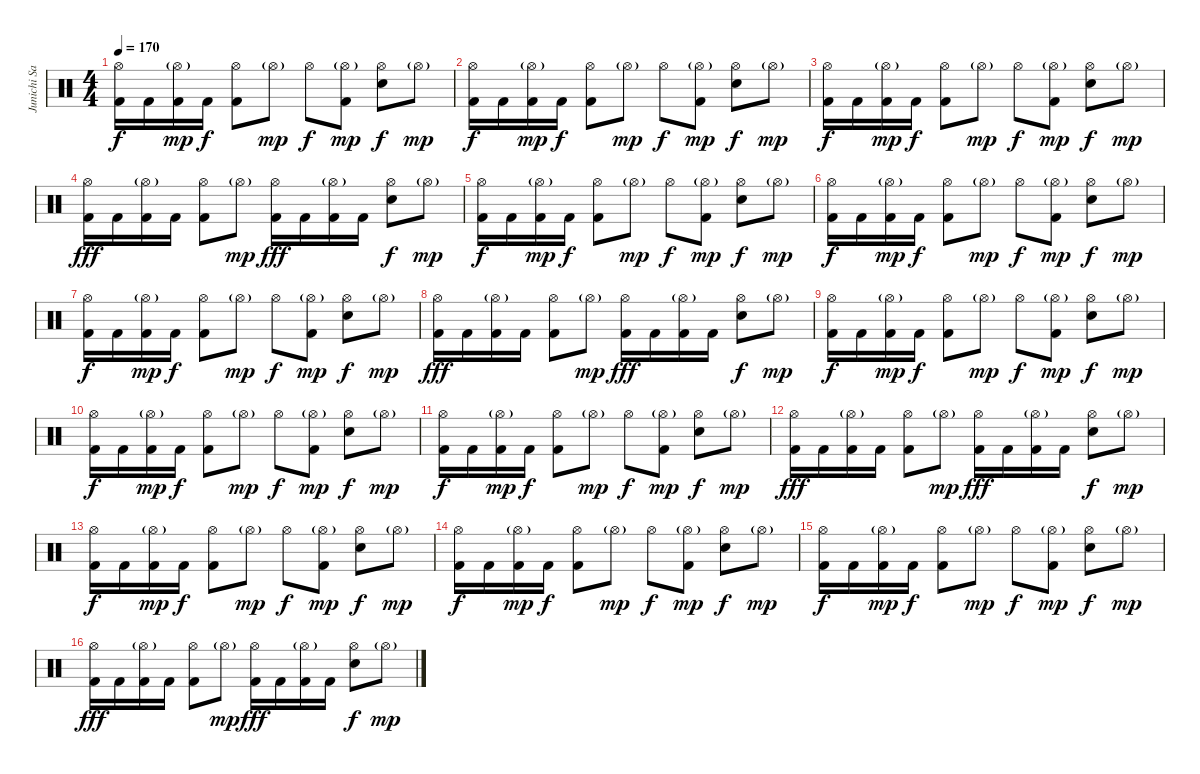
\track ("Junichi Sato" "Junichi Sa") {instrument percussion}
\staff {score}
\articulation defaults
\ts (4 4)
\tempo 170
\clef neutral
\ks c
("Hi-Hat (open)" "Kick (hit) 2").16{dy f} "Kick (hit) 2".16 ("Hi-Hat (open)"{g} "Kick (hit) 2").16{dy mp} "Kick (hit) 2".16{dy f} ("Hi-Hat (open)" "Kick (hit) 2").8 "Hi-Hat (open)"{g}.8{dy mp} "Hi-Hat (open)".8{dy f} ("Hi-Hat (open)"{g} "Kick (hit) 2").8{dy mp} ("Hi-Hat (open)" "Snare (hit) 2").8{dy f} "Hi-Hat (open)"{g}.8{dy mp} |
("Hi-Hat (open)" "Kick (hit) 2").16{dy f} "Kick (hit) 2".16 ("Hi-Hat (open)"{g} "Kick (hit) 2").16{dy mp} "Kick (hit) 2".16{dy f} ("Hi-Hat (open)" "Kick (hit) 2").8 "Hi-Hat (open)"{g}.8{dy mp} "Hi-Hat (open)".8{dy f} ("Hi-Hat (open)"{g} "Kick (hit) 2").8{dy mp} ("Hi-Hat (open)" "Snare (hit) 2").8{dy f} "Hi-Hat (open)"{g}.8{dy mp} |
("Hi-Hat (open)" "Kick (hit) 2").16{dy f} "Kick (hit) 2".16 ("Hi-Hat (open)"{g} "Kick (hit) 2").16{dy mp} "Kick (hit) 2".16{dy f} ("Hi-Hat (open)" "Kick (hit) 2").8 "Hi-Hat (open)"{g}.8{dy mp} "Hi-Hat (open)".8{dy f} ("Hi-Hat (open)"{g} "Kick (hit) 2").8{dy mp} ("Hi-Hat (open)" "Snare (hit) 2").8{dy f} "Hi-Hat (open)"{g}.8{dy mp} |
("Hi-Hat (open)" "Kick (hit) 2").16{dy fff} "Kick (hit) 2".16 ("Hi-Hat (open)"{g} "Kick (hit) 2").16 "Kick (hit) 2".16 ("Hi-Hat (open)" "Kick (hit) 2").8 "Hi-Hat (open)"{g}.8{dy mp} ("Hi-Hat (open)" "Kick (hit) 2").16{dy fff} "Kick (hit) 2".16 ("Hi-Hat (open)"{g} "Kick (hit) 2").16 "Kick (hit) 2".16 ("Hi-Hat (open)" "Snare (hit) 2").8{dy f} "Hi-Hat (open)"{g}.8{dy mp} |
("Hi-Hat (open)" "Kick (hit) 2").16{dy f} "Kick (hit) 2".16 ("Hi-Hat (open)"{g} "Kick (hit) 2").16{dy mp} "Kick (hit) 2".16{dy f} ("Hi-Hat (open)" "Kick (hit) 2").8 "Hi-Hat (open)"{g}.8{dy mp} "Hi-Hat (open)".8{dy f} ("Hi-Hat (open)"{g} "Kick (hit) 2").8{dy mp} ("Hi-Hat (open)" "Snare (hit) 2").8{dy f} "Hi-Hat (open)"{g}.8{dy mp} |
("Hi-Hat (open)" "Kick (hit) 2").16{dy f} "Kick (hit) 2".16 ("Hi-Hat (open)"{g} "Kick (hit) 2").16{dy mp} "Kick (hit) 2".16{dy f} ("Hi-Hat (open)" "Kick (hit) 2").8 "Hi-Hat (open)"{g}.8{dy mp} "Hi-Hat (open)".8{dy f} ("Hi-Hat (open)"{g} "Kick (hit) 2").8{dy mp} ("Hi-Hat (open)" "Snare (hit) 2").8{dy f} "Hi-Hat (open)"{g}.8{dy mp} |
("Hi-Hat (open)" "Kick (hit) 2").16{dy f} "Kick (hit) 2".16 ("Hi-Hat (open)"{g} "Kick (hit) 2").16{dy mp} "Kick (hit) 2".16{dy f} ("Hi-Hat (open)" "Kick (hit) 2").8 "Hi-Hat (open)"{g}.8{dy mp} "Hi-Hat (open)".8{dy f} ("Hi-Hat (open)"{g} "Kick (hit) 2").8{dy mp} ("Hi-Hat (open)" "Snare (hit) 2").8{dy f} "Hi-Hat (open)"{g}.8{dy mp} |
("Hi-Hat (open)" "Kick (hit) 2").16{dy fff} "Kick (hit) 2".16 ("Hi-Hat (open)"{g} "Kick (hit) 2").16 "Kick (hit) 2".16 ("Hi-Hat (open)" "Kick (hit) 2").8 "Hi-Hat (open)"{g}.8{dy mp} ("Hi-Hat (open)" "Kick (hit) 2").16{dy fff} "Kick (hit) 2".16 ("Hi-Hat (open)"{g} "Kick (hit) 2").16 "Kick (hit) 2".16 ("Hi-Hat (open)" "Snare (hit) 2").8{dy f} "Hi-Hat (open)"{g}.8{dy mp} |
("Hi-Hat (open)" "Kick (hit) 2").16{dy f} "Kick (hit) 2".16 ("Hi-Hat (open)"{g} "Kick (hit) 2").16{dy mp} "Kick (hit) 2".16{dy f} ("Hi-Hat (open)" "Kick (hit) 2").8 "Hi-Hat (open)"{g}.8{dy mp} "Hi-Hat (open)".8{dy f} ("Hi-Hat (open)"{g} "Kick (hit) 2").8{dy mp} ("Hi-Hat (open)" "Snare (hit) 2").8{dy f} "Hi-Hat (open)"{g}.8{dy mp} |
("Hi-Hat (open)" "Kick (hit) 2").16{dy f} "Kick (hit) 2".16 ("Hi-Hat (open)"{g} "Kick (hit) 2").16{dy mp} "Kick (hit) 2".16{dy f} ("Hi-Hat (open)" "Kick (hit) 2").8 "Hi-Hat (open)"{g}.8{dy mp} "Hi-Hat (open)".8{dy f} ("Hi-Hat (open)"{g} "Kick (hit) 2").8{dy mp} ("Hi-Hat (open)" "Snare (hit) 2").8{dy f} "Hi-Hat (open)"{g}.8{dy mp} |
("Hi-Hat (open)" "Kick (hit) 2").16{dy f} "Kick (hit) 2".16 ("Hi-Hat (open)"{g} "Kick (hit) 2").16{dy mp} "Kick (hit) 2".16{dy f} ("Hi-Hat (open)" "Kick (hit) 2").8 "Hi-Hat (open)"{g}.8{dy mp} "Hi-Hat (open)".8{dy f} ("Hi-Hat (open)"{g} "Kick (hit) 2").8{dy mp} ("Hi-Hat (open)" "Snare (hit) 2").8{dy f} "Hi-Hat (open)"{g}.8{dy mp} |
("Hi-Hat (open)" "Kick (hit) 2").16{dy fff} "Kick (hit) 2".16 ("Hi-Hat (open)"{g} "Kick (hit) 2").16 "Kick (hit) 2".16 ("Hi-Hat (open)" "Kick (hit) 2").8 "Hi-Hat (open)"{g}.8{dy mp} ("Hi-Hat (open)" "Kick (hit) 2").16{dy fff} "Kick (hit) 2".16 ("Hi-Hat (open)"{g} "Kick (hit) 2").16 "Kick (hit) 2".16 ("Hi-Hat (open)" "Snare (hit) 2").8{dy f} "Hi-Hat (open)"{g}.8{dy mp} |
("Hi-Hat (open)" "Kick (hit) 2").16{dy f} "Kick (hit) 2".16 ("Hi-Hat (open)"{g} "Kick (hit) 2").16{dy mp} "Kick (hit) 2".16{dy f} ("Hi-Hat (open)" "Kick (hit) 2").8 "Hi-Hat (open)"{g}.8{dy mp} "Hi-Hat (open)".8{dy f} ("Hi-Hat (open)"{g} "Kick (hit) 2").8{dy mp} ("Hi-Hat (open)" "Snare (hit) 2").8{dy f} "Hi-Hat (open)"{g}.8{dy mp} |
("Hi-Hat (open)" "Kick (hit) 2").16{dy f} "Kick (hit) 2".16 ("Hi-Hat (open)"{g} "Kick (hit) 2").16{dy mp} "Kick (hit) 2".16{dy f} ("Hi-Hat (open)" "Kick (hit) 2").8 "Hi-Hat (open)"{g}.8{dy mp} "Hi-Hat (open)".8{dy f} ("Hi-Hat (open)"{g} "Kick (hit) 2").8{dy mp} ("Hi-Hat (open)" "Snare (hit) 2").8{dy f} "Hi-Hat (open)"{g}.8{dy mp} |
("Hi-Hat (open)" "Kick (hit) 2").16{dy f} "Kick (hit) 2".16 ("Hi-Hat (open)"{g} "Kick (hit) 2").16{dy mp} "Kick (hit) 2".16{dy f} ("Hi-Hat (open)" "Kick (hit) 2").8 "Hi-Hat (open)"{g}.8{dy mp} "Hi-Hat (open)".8{dy f} ("Hi-Hat (open)"{g} "Kick (hit) 2").8{dy mp} ("Hi-Hat (open)" "Snare (hit) 2").8{dy f} "Hi-Hat (open)"{g}.8{dy mp} |
("Hi-Hat (open)" "Kick (hit) 2").16{dy fff} "Kick (hit) 2".16 ("Hi-Hat (open)"{g} "Kick (hit) 2").16 "Kick (hit) 2".16 ("Hi-Hat (open)" "Kick (hit) 2").8 "Hi-Hat (open)"{g}.8{dy mp} ("Hi-Hat (open)" "Kick (hit) 2").16{dy fff} "Kick (hit) 2".16 ("Hi-Hat (open)"{g} "Kick (hit) 2").16 "Kick (hit) 2".16 ("Hi-Hat (open)" "Snare (hit) 2").8{dy f} "Hi-Hat (open)"{g}.8{dy mp}
